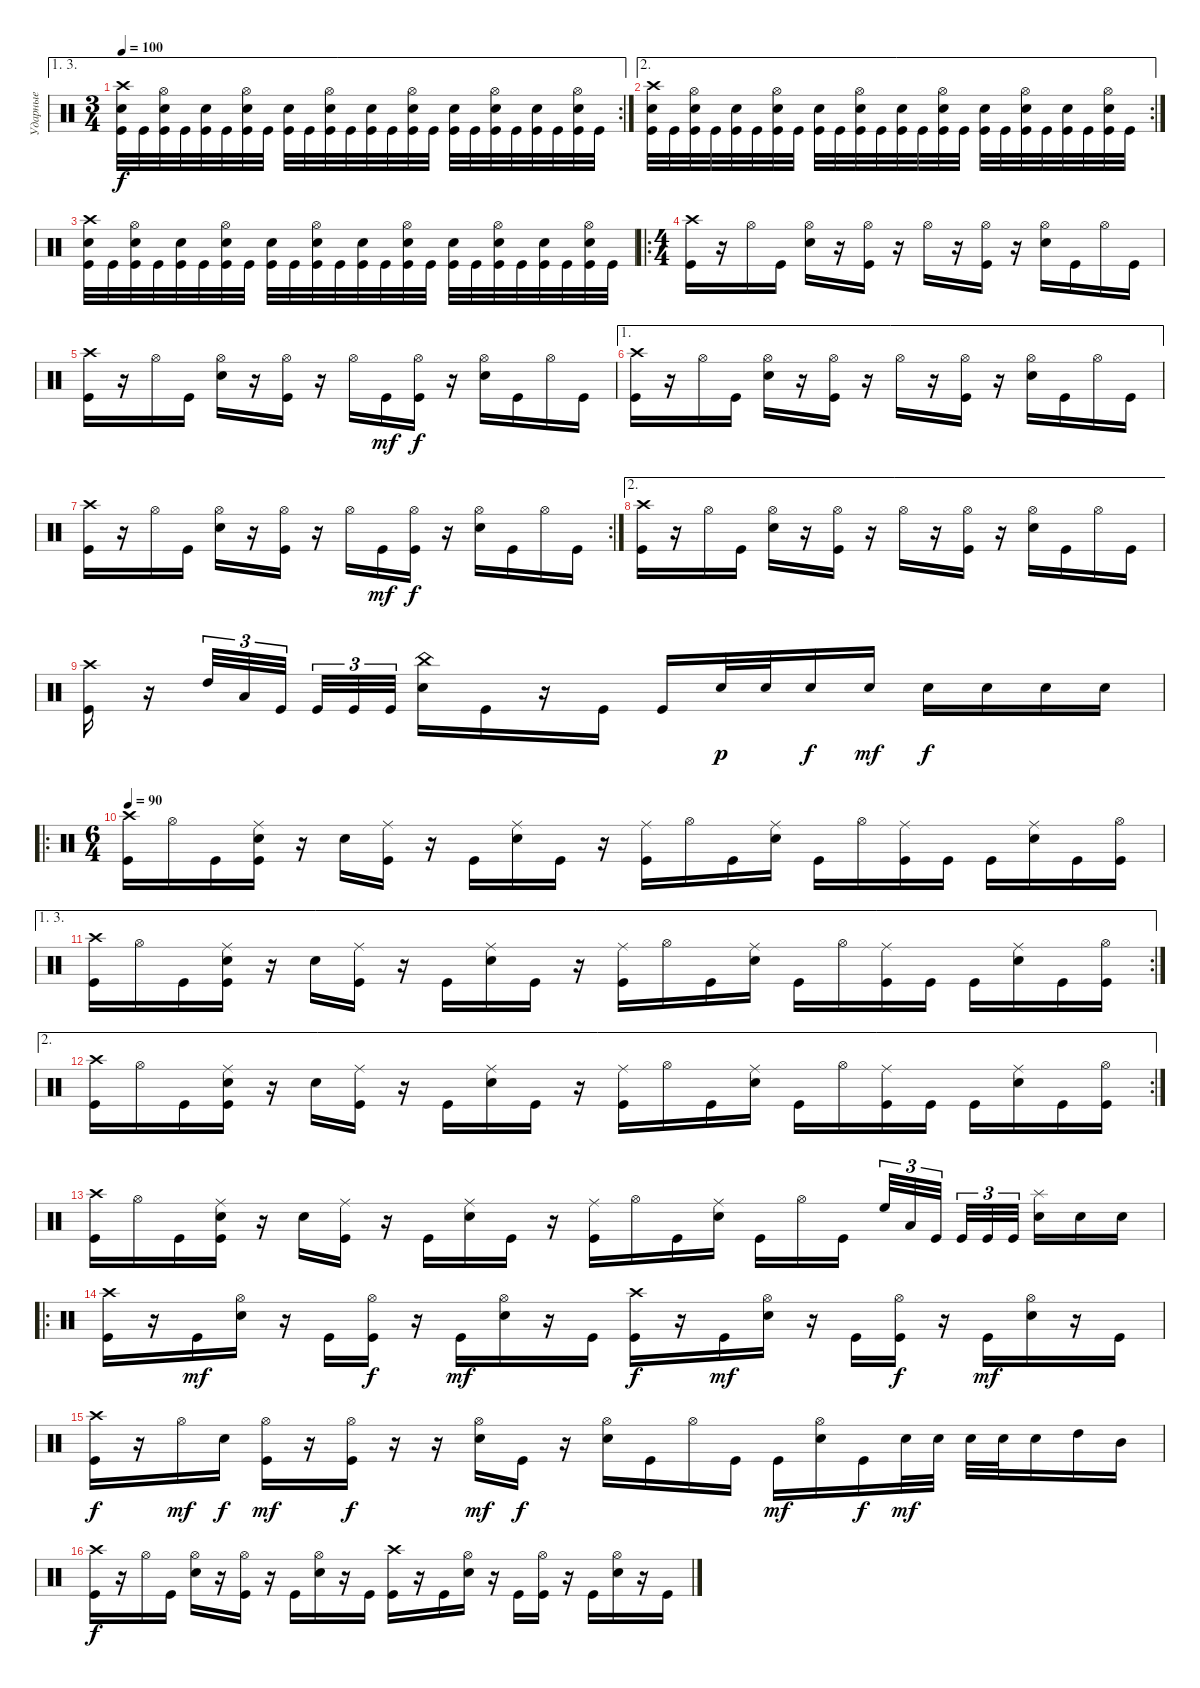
\track ("Ударные" "Ударные") {instrument percussion}
\staff {score}
\articulation defaults
\ae (1 3)
\rc 2
\ts (3 4)
\tempo 100
\clef neutral
\ks c
("Snare (hit) 2" "Crash high (hit)" "Kick (hit)").32{dy f} "Kick (hit)".32 ("Snare (hit) 2" "Hi-Hat (open)" "Kick (hit)").32 "Kick (hit)".32 ("Snare (hit) 2" "Kick (hit)").32 "Kick (hit)".32 ("Snare (hit) 2" "Hi-Hat (open)" "Kick (hit)").32 "Kick (hit)".32 ("Snare (hit) 2" "Kick (hit)").32 "Kick (hit)".32 ("Snare (hit) 2" "Hi-Hat (open)" "Kick (hit)").32 "Kick (hit)".32 ("Snare (hit) 2" "Kick (hit)").32 "Kick (hit)".32 ("Snare (hit) 2" "Hi-Hat (open)" "Kick (hit)").32 "Kick (hit)".32 ("Snare (hit) 2" "Kick (hit)").32 "Kick (hit)".32 ("Snare (hit) 2" "Hi-Hat (open)" "Kick (hit)").32 "Kick (hit)".32 ("Snare (hit) 2" "Kick (hit)").32 "Kick (hit)".32 ("Snare (hit) 2" "Hi-Hat (open)" "Kick (hit)").32 "Kick (hit)".32 |
\ae 2
\rc 2
("Snare (hit) 2" "Crash high (hit)" "Kick (hit)").32 "Kick (hit)".32 ("Snare (hit) 2" "Hi-Hat (open)" "Kick (hit)").32 "Kick (hit)".32 ("Snare (hit) 2" "Kick (hit)").32 "Kick (hit)".32 ("Snare (hit) 2" "Hi-Hat (open)" "Kick (hit)").32 "Kick (hit)".32 ("Snare (hit) 2" "Kick (hit)").32 "Kick (hit)".32 ("Snare (hit) 2" "Hi-Hat (open)" "Kick (hit)").32 "Kick (hit)".32 ("Snare (hit) 2" "Kick (hit)").32 "Kick (hit)".32 ("Snare (hit) 2" "Hi-Hat (open)" "Kick (hit)").32 "Kick (hit)".32 ("Snare (hit) 2" "Kick (hit)").32 "Kick (hit)".32 ("Snare (hit) 2" "Hi-Hat (open)" "Kick (hit)").32 "Kick (hit)".32 ("Snare (hit) 2" "Kick (hit)").32 "Kick (hit)".32 ("Snare (hit) 2" "Hi-Hat (open)" "Kick (hit)").32 "Kick (hit)".32 |
("Snare (hit) 2" "Crash high (hit)" "Kick (hit)").32 "Kick (hit)".32 ("Snare (hit) 2" "Hi-Hat (open)" "Kick (hit)").32 "Kick (hit)".32 ("Snare (hit) 2" "Kick (hit)").32 "Kick (hit)".32 ("Snare (hit) 2" "Hi-Hat (open)" "Kick (hit)").32 "Kick (hit)".32 ("Snare (hit) 2" "Kick (hit)").32 "Kick (hit)".32 ("Snare (hit) 2" "Hi-Hat (open)" "Kick (hit)").32 "Kick (hit)".32 ("Snare (hit) 2" "Kick (hit)").32 "Kick (hit)".32 ("Snare (hit) 2" "Hi-Hat (open)" "Kick (hit)").32 "Kick (hit)".32 ("Snare (hit) 2" "Kick (hit)").32 "Kick (hit)".32 ("Snare (hit) 2" "Hi-Hat (open)" "Kick (hit)").32 "Kick (hit)".32 ("Snare (hit) 2" "Kick (hit)").32 "Kick (hit)".32 ("Snare (hit) 2" "Hi-Hat (open)" "Kick (hit)").32 "Kick (hit)".32 |
\ro
\ts (4 4)
("Crash high (hit)" "Kick (hit)").16 r.16 "Hi-Hat (open)".16 "Kick (hit)".16 ("Hi-Hat (open)" "Snare (hit) 2").16 r.16 ("Hi-Hat (open)" "Kick (hit)").16 r.16 "Hi-Hat (open)".16 r.16 ("Hi-Hat (open)" "Kick (hit)").16 r.16 ("Hi-Hat (open)" "Snare (hit) 2").16 "Kick (hit)".16 "Hi-Hat (open)".16 "Kick (hit)".16 |
("Crash high (hit)" "Kick (hit)").16 r.16 "Hi-Hat (open)".16 "Kick (hit)".16 ("Hi-Hat (open)" "Snare (hit) 2").16 r.16 ("Hi-Hat (open)" "Kick (hit)").16 r.16 "Hi-Hat (open)".16 "Kick (hit)".16{dy mf} ("Hi-Hat (open)" "Kick (hit)").16{dy f} r.16 ("Hi-Hat (open)" "Snare (hit) 2").16 "Kick (hit)".16 "Hi-Hat (open)".16 "Kick (hit)".16 |
\ae 1
("Crash high (hit)" "Kick (hit)").16 r.16 "Hi-Hat (open)".16 "Kick (hit)".16 ("Hi-Hat (open)" "Snare (hit) 2").16 r.16 ("Hi-Hat (open)" "Kick (hit)").16 r.16 "Hi-Hat (open)".16 r.16 ("Hi-Hat (open)" "Kick (hit)").16 r.16 ("Hi-Hat (open)" "Snare (hit) 2").16 "Kick (hit)".16 "Hi-Hat (open)".16 "Kick (hit)".16 |
\rc 2
("Crash high (hit)" "Kick (hit)").16 r.16 "Hi-Hat (open)".16 "Kick (hit)".16 ("Hi-Hat (open)" "Snare (hit) 2").16 r.16 ("Hi-Hat (open)" "Kick (hit)").16 r.16 "Hi-Hat (open)".16 "Kick (hit)".16{dy mf} ("Hi-Hat (open)" "Kick (hit)").16{dy f} r.16 ("Hi-Hat (open)" "Snare (hit) 2").16 "Kick (hit)".16 "Hi-Hat (open)".16 "Kick (hit)".16 |
\ae 2
("Crash high (hit)" "Kick (hit)").16 r.16 "Hi-Hat (open)".16 "Kick (hit)".16 ("Hi-Hat (open)" "Snare (hit) 2").16 r.16 ("Hi-Hat (open)" "Kick (hit)").16 r.16 "Hi-Hat (open)".16 r.16 ("Hi-Hat (open)" "Kick (hit)").16 r.16 ("Hi-Hat (open)" "Snare (hit) 2").16 "Kick (hit)".16 "Hi-Hat (open)".16 "Kick (hit)".16 |
("Crash high (hit)" "Kick (hit)").16 r.16 "High Tom (hit)".32{tu (3 2)} "Low Tom (hit)".32{tu (3 2)} "Kick (hit)".32{tu (3 2) beam splitsecondary} "Kick (hit)".32{tu (3 2)} "Kick (hit)".32{tu (3 2)} "Kick (hit)".32{tu (3 2)} ("China (hit)" "Snare (hit) 2").16 "Kick (hit)".16 r.16 "Kick (hit)".16 "Kick (hit)".16 "Snare (hit) 2".32{dy p} "Snare (hit) 2".32 "Snare (hit) 2".16{dy f} "Snare (hit) 2".16{dy mf} "Snare (hit) 2".16{dy f} "Snare (hit) 2".16 "Snare (hit) 2".16 "Snare (hit) 2".16 |
\ro
\ts (6 4)
\tempo 90
("Crash high (hit)" "Kick (hit)").16 "Hi-Hat (open)".16 "Kick (hit)".16 ("Ride (middle)" "Snare (hit) 2" "Kick (hit)").16 r.16 "Snare (hit) 2".16 ("Ride (middle)" "Kick (hit)").16 r.16 "Kick (hit)".16 ("Ride (middle)" "Snare (hit) 2").16 "Kick (hit)".16 r.16 ("Ride (middle)" "Kick (hit)").16 "Hi-Hat (open)".16 "Kick (hit)".16 ("Ride (middle)" "Snare (hit) 2").16 "Kick (hit)".16 "Hi-Hat (open)".16 ("Ride (middle)" "Kick (hit)").16 "Kick (hit)".16 "Kick (hit)".16 ("Ride (middle)" "Snare (hit) 2").16 "Kick (hit)".16 ("Hi-Hat (open)" "Kick (hit)").16 |
\ae (1 3)
\rc 2
("Crash high (hit)" "Kick (hit)").16 "Hi-Hat (open)".16 "Kick (hit)".16 ("Ride (middle)" "Snare (hit) 2" "Kick (hit)").16 r.16 "Snare (hit) 2".16 ("Ride (middle)" "Kick (hit)").16 r.16 "Kick (hit)".16 ("Ride (middle)" "Snare (hit) 2").16 "Kick (hit)".16 r.16 ("Ride (middle)" "Kick (hit)").16 "Hi-Hat (open)".16 "Kick (hit)".16 ("Ride (middle)" "Snare (hit) 2").16 "Kick (hit)".16 "Hi-Hat (open)".16 ("Ride (middle)" "Kick (hit)").16 "Kick (hit)".16 "Kick (hit)".16 ("Ride (middle)" "Snare (hit) 2").16 "Kick (hit)".16 ("Hi-Hat (open)" "Kick (hit)").16 |
\ae 2
\rc 2
("Crash high (hit)" "Kick (hit)").16 "Hi-Hat (open)".16 "Kick (hit)".16 ("Ride (middle)" "Snare (hit) 2" "Kick (hit)").16 r.16 "Snare (hit) 2".16 ("Ride (middle)" "Kick (hit)").16 r.16 "Kick (hit)".16 ("Ride (middle)" "Snare (hit) 2").16 "Kick (hit)".16 r.16 ("Ride (middle)" "Kick (hit)").16 "Hi-Hat (open)".16 "Kick (hit)".16 ("Ride (middle)" "Snare (hit) 2").16 "Kick (hit)".16 "Hi-Hat (open)".16 ("Ride (middle)" "Kick (hit)").16 "Kick (hit)".16 "Kick (hit)".16 ("Ride (middle)" "Snare (hit) 2").16 "Kick (hit)".16 ("Hi-Hat (open)" "Kick (hit)").16 |
("Crash high (hit)" "Kick (hit)").16 "Hi-Hat (open)".16 "Kick (hit)".16 ("Ride (middle)" "Snare (hit) 2" "Kick (hit)").16 r.16 "Snare (hit) 2".16 ("Ride (middle)" "Kick (hit)").16 r.16 "Kick (hit)".16 ("Ride (middle)" "Snare (hit) 2").16 "Kick (hit)".16 r.16 ("Ride (middle)" "Kick (hit)").16 "Hi-Hat (open)".16 "Kick (hit)".16 ("Ride (middle)" "Snare (hit) 2").16 "Kick (hit)".16 "Hi-Hat (open)".16 "Kick (hit)".16{beam splitsecondary} "High Floor Tom (hit)".32{tu (3 2)} "Low Tom (hit)".32{tu (3 2)} "Kick (hit)".32{tu (3 2) beam splitsecondary} "Kick (hit)".32{tu (3 2)} "Kick (hit)".32{tu (3 2)} "Kick (hit)".32{tu (3 2) beam splitsecondary} ("Splash (hit)" "Snare (hit) 2").16 "Snare (hit) 2".16 "Snare (hit) 2".16 |
\ro
("Crash high (hit)" "Kick (hit)").16 r.16 "Kick (hit)".16{dy mf} ("Hi-Hat (open)" "Snare (hit) 2").16 r.16 "Kick (hit)".16 ("Hi-Hat (open)" "Kick (hit)").16{dy f} r.16 "Kick (hit)".16{dy mf} ("Hi-Hat (open)" "Snare (hit) 2").16 r.16 "Kick (hit)".16 ("Crash high (hit)" "Kick (hit)").16{dy f} r.16 "Kick (hit)".16{dy mf} ("Hi-Hat (open)" "Snare (hit) 2").16 r.16 "Kick (hit)".16 ("Hi-Hat (open)" "Kick (hit)").16{dy f} r.16 "Kick (hit)".16{dy mf} ("Hi-Hat (open)" "Snare (hit) 2").16 r.16 "Kick (hit)".16 |
("Crash high (hit)" "Kick (hit)").16{dy f} r.16 "Hi-Hat (open)".16{dy mf} "Snare (hit) 2".16{dy f} ("Hi-Hat (open)" "Kick (hit)").16{dy mf} r.16 ("Hi-Hat (open)" "Kick (hit)").16{dy f} r.16 r.16 ("Hi-Hat (open)" "Snare (hit) 2").16{dy mf} "Kick (hit)".16{dy f} r.16 ("Hi-Hat (open)" "Snare (hit) 2").16 "Kick (hit)".16 "Hi-Hat (open)".16 "Kick (hit)".16 "Kick (hit)".16{dy mf} ("Hi-Hat (open)" "Snare (hit) 2").16 "Kick (hit)".16{dy f} "Snare (hit) 2".32{dy mf} "Snare (hit) 2".32 "Snare (hit) 2".32 "Snare (hit) 2".32 "Snare (hit) 2".16 "High Tom (hit)".16 "Mid Tom (hit)".16 |
("Crash high (hit)" "Kick (hit)").16{dy f} r.16 "Hi-Hat (open)".16 "Kick (hit)".16 ("Hi-Hat (open)" "Snare (hit) 2").16 r.16 ("Hi-Hat (open)" "Kick (hit)").16 r.16 "Kick (hit)".16 ("Hi-Hat (open)" "Snare (hit) 2").16 r.16 "Kick (hit)".16 ("Crash high (hit)" "Kick (hit)").16 r.16 "Kick (hit)".16 ("Hi-Hat (open)" "Snare (hit) 2").16 r.16 "Kick (hit)".16 ("Hi-Hat (open)" "Kick (hit)").16 r.16 "Kick (hit)".16 ("Hi-Hat (open)" "Snare (hit) 2").16 r.16 "Kick (hit)".16
